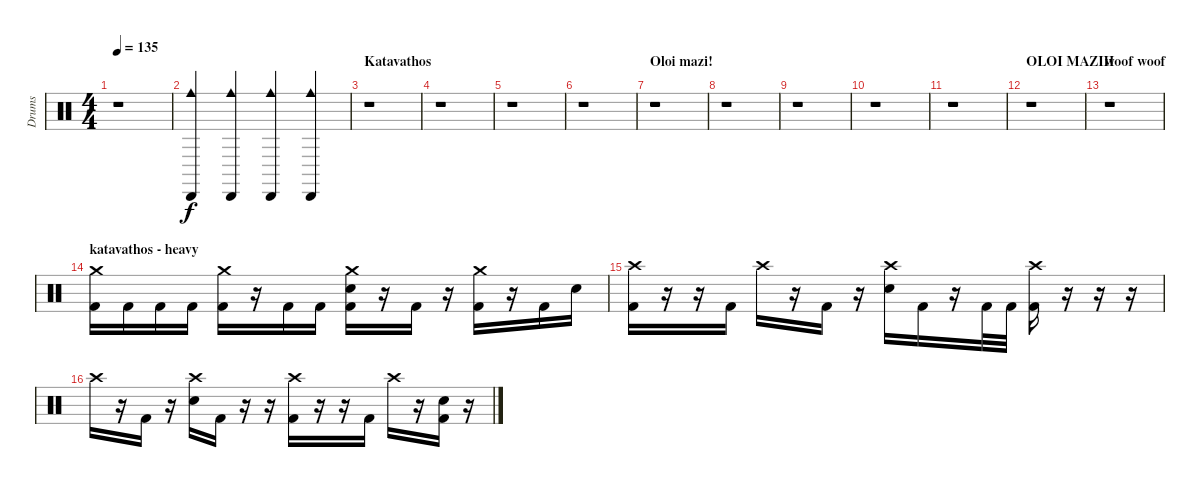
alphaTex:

\track ("Drums" "Drums") {instrument percussion}
\staff {score}
\articulation defaults
\ts (4 4)
\tempo 135
\clef neutral
\ks c
r.1{dy f} |
("Cowbell medium (hit)" "Cabasa (hit)").4 ("Cowbell medium (hit)" "Cabasa (hit)").4 ("Cowbell medium (hit)" "Cabasa (hit)").4 ("Cowbell medium (hit)" "Cabasa (hit)").4 |
\section ("" "Katavathos")
r.1 |
r.1 |
r.1 |
r.1 |
\section ("" "Oloi mazi!")
r.1 |
r.1 |
r.1 |
r.1 |
r.1 |
\section ("" "OLOI MAZIII")
r.1 |
\section ("" "woof woof")
r.1 |
\section ("" "katavathos - heavy")
("Crash medium (hit)" "Kick (hit) 2").16 "Kick (hit) 2".16 "Kick (hit) 2".16 "Kick (hit) 2".16 ("Crash medium (hit)" "Kick (hit) 2").16 r.16 "Kick (hit) 2".16 "Kick (hit) 2".16 ("Crash medium (hit)" "Snare (hit) 2" "Kick (hit) 2").16 r.16 "Kick (hit) 2".16 r.16 ("Crash medium (hit)" "Kick (hit) 2").16 r.16 "Kick (hit) 2".16 "Electric Snare (hit)".16 |
("Crash high (hit)" "Kick (hit) 2").16 r.16 r.16 "Kick (hit) 2".16 "Crash high (hit)".16 r.16 "Kick (hit) 2".16 r.16 ("Crash high (hit)" "Snare (hit) 2").16 "Kick (hit) 2".16 r.16 "Kick (hit) 2".32 "Kick (hit) 2".32 ("Crash high (hit)" "Kick (hit) 2").16 r.16 r.16 r.16 |
"Crash high (hit)".16 r.16 "Kick (hit) 2".16 r.16 ("Crash high (hit)" "Electric Snare (hit)").16 "Kick (hit) 2".16 r.16 r.16 ("Crash high (hit)" "Kick (hit) 2").16 r.16 r.16 "Kick (hit) 2".16 "Crash high (hit)".16 r.16 ("Electric Snare (hit)" "Kick (hit) 2").16 r.16
